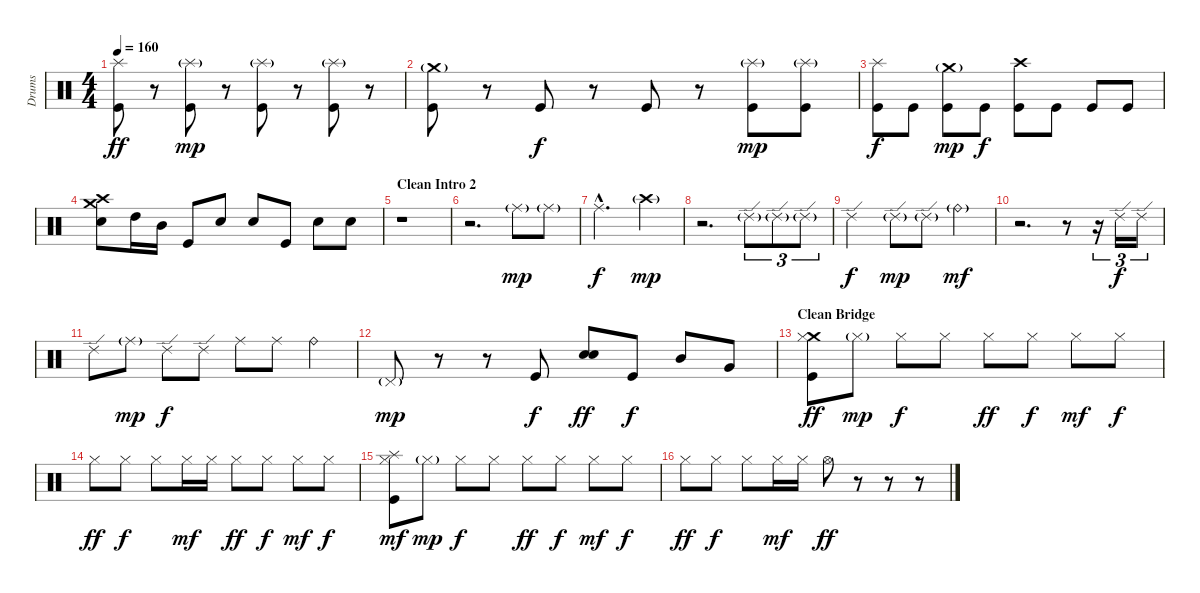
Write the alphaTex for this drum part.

\track ("Drums" "Drums") {instrument percussion}
\staff {score}
\articulation defaults
\ts (4 4)
\tempo 160
\clef neutral
\ks c
("Kick (hit)" "Splash (hit)").8{dy ff} r.8 ("Kick (hit)" "Splash (hit)"{g}).8{dy mp} r.8 ("Kick (hit)" "Splash (hit)"{g}).8 r.8 ("Kick (hit)" "Splash (hit)"{g}).8 r.8 |
("Kick (hit)" "Crash medium (hit)"{g}).8 r.8 "Kick (hit)".8{dy f} r.8 "Kick (hit)".8 r.8 ("Kick (hit)" "Splash (hit)"{g}).8{dy mp} ("Kick (hit)" "Splash (hit)"{g}).8 |
("Kick (hit)" "Splash (hit)").8{dy f} "Kick (hit)".8 ("Kick (hit)" "Crash medium (hit)"{g}).8{dy mp} "Kick (hit)".8{dy f} ("Kick (hit)" "Crash high (hit)").8 "Kick (hit)".8 "Kick (hit)".8 "Kick (hit)".8 |
("Electric Snare (hit)" "Crash high (hit)" "Crash medium (hit)").8 "High Tom (hit)".16 "Mid Tom (hit)".16 "Kick (hit)".8 "Electric Snare (hit)".8 "Electric Snare (hit)".8 "Kick (hit)".8 "Electric Snare (hit)".8 "Electric Snare (hit)".8 |
\section ("" "Clean Intro 2")
r.1 |
r.2{d} "Ride (middle)"{g}.8{dy mp} "Ride (middle)"{g}.8 |
"Ride (middle)"{hac}.2{d dy f} "Crash high (hit)"{g}.4{dy mp} |
r.2{d} "Ride (edge) 2"{g}.8{tu (3 2)} "Ride (edge) 2"{g}.8{tu (3 2)} "Ride (edge) 2"{g}.8{tu (3 2)} |
"Ride (edge) 2".2{dy f} "Ride (edge) 2"{g}.8{dy mp} "Ride (edge) 2"{g}.8 "Ride (bell)"{g}.4{dy mf} |
r.2{d} r.8 r.16{tu (3 2)} "Ride (edge) 2".16{tu (3 2) dy f} "Ride (edge) 2".16{tu (3 2)} |
"Ride (edge) 2".8 "Ride (middle)"{g}.8{dy mp} "Ride (edge) 2".8{dy f} "Ride (edge) 2".8 "Ride (middle)".8 "Ride (middle)".8 "Ride (bell)".4 |
"Pedal Hi-Hat (hit)"{g}.8{dy mp} r.8 r.8 "Kick (hit)".8{dy f} ("Electric Snare (hit)" "Electric Snare (hit)").8{dy ff} "Kick (hit)".8{dy f} "Mid Tom (hit)".8 "Very Low Tom (hit)".8 |
\section ("" "Clean Bridge")
("Kick (hit)" "Crash medium (hit)" "Hi-Hat (closed)").8{dy ff} "Hi-Hat (closed)"{g}.8{dy mp} "Hi-Hat (closed)".8{dy f} "Hi-Hat (closed)".8 "Hi-Hat (closed)".8{dy ff} "Hi-Hat (closed)".8{dy f} "Hi-Hat (closed)".8{dy mf} "Hi-Hat (closed)".8{dy f} |
"Hi-Hat (closed)".8{dy ff} "Hi-Hat (closed)".8{dy f} "Hi-Hat (closed)".8 "Hi-Hat (closed)".16{dy mf} "Hi-Hat (closed)".16 "Hi-Hat (closed)".8{dy ff} "Hi-Hat (closed)".8{dy f} "Hi-Hat (closed)".8{dy mf} "Hi-Hat (closed)".8{dy f} |
("Kick (hit)" "Splash (hit)" "Hi-Hat (closed)").8{dy mf} "Hi-Hat (closed)"{g}.8{dy mp} "Hi-Hat (closed)".8{dy f} "Hi-Hat (closed)".8 "Hi-Hat (closed)".8{dy ff} "Hi-Hat (closed)".8{dy f} "Hi-Hat (closed)".8{dy mf} "Hi-Hat (closed)".8{dy f} |
"Hi-Hat (closed)".8{dy ff} "Hi-Hat (closed)".8{dy f} "Hi-Hat (closed)".8 "Hi-Hat (closed)".16{dy mf} "Hi-Hat (closed)".16 "Hi-Hat (open)".8{dy ff} r.8 r.8 r.8
